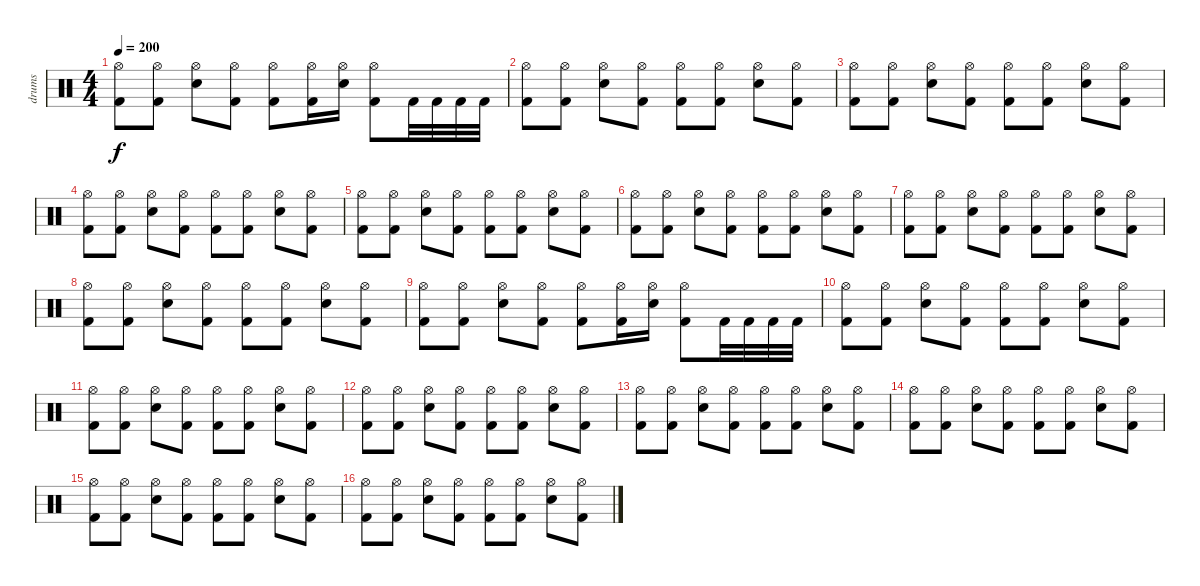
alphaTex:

\track ("drums" "drums") {instrument percussion}
\staff {score}
\articulation defaults
\ts (4 4)
\tempo 200
\clef neutral
\ks c
("Hi-Hat (open)" "Kick (hit) 2").8{dy f} ("Hi-Hat (open)" "Kick (hit) 2").8 ("Hi-Hat (open)" "Electric Snare (hit)").8 ("Hi-Hat (open)" "Kick (hit) 2").8 ("Hi-Hat (open)" "Kick (hit) 2").8 ("Hi-Hat (open)" "Kick (hit) 2").16 ("Hi-Hat (open)" "Electric Snare (hit)").16 ("Hi-Hat (open)" "Kick (hit) 2").8 "Kick (hit) 2".32 "Kick (hit) 2".32 "Kick (hit) 2".32 "Kick (hit) 2".32 |
("Hi-Hat (open)" "Kick (hit) 2").8 ("Hi-Hat (open)" "Kick (hit) 2").8 ("Hi-Hat (open)" "Electric Snare (hit)").8 ("Hi-Hat (open)" "Kick (hit) 2").8 ("Hi-Hat (open)" "Kick (hit) 2").8 ("Hi-Hat (open)" "Kick (hit) 2").8 ("Hi-Hat (open)" "Electric Snare (hit)").8 ("Hi-Hat (open)" "Kick (hit) 2").8 |
("Hi-Hat (open)" "Kick (hit) 2").8 ("Hi-Hat (open)" "Kick (hit) 2").8 ("Hi-Hat (open)" "Electric Snare (hit)").8 ("Hi-Hat (open)" "Kick (hit) 2").8 ("Hi-Hat (open)" "Kick (hit) 2").8 ("Hi-Hat (open)" "Kick (hit) 2").8 ("Hi-Hat (open)" "Electric Snare (hit)").8 ("Hi-Hat (open)" "Kick (hit) 2").8 |
("Hi-Hat (open)" "Kick (hit) 2").8 ("Hi-Hat (open)" "Kick (hit) 2").8 ("Hi-Hat (open)" "Electric Snare (hit)").8 ("Hi-Hat (open)" "Kick (hit) 2").8 ("Hi-Hat (open)" "Kick (hit) 2").8 ("Hi-Hat (open)" "Kick (hit) 2").8 ("Hi-Hat (open)" "Electric Snare (hit)").8 ("Hi-Hat (open)" "Kick (hit) 2").8 |
("Hi-Hat (open)" "Kick (hit) 2").8 ("Hi-Hat (open)" "Kick (hit) 2").8 ("Hi-Hat (open)" "Electric Snare (hit)").8 ("Hi-Hat (open)" "Kick (hit) 2").8 ("Hi-Hat (open)" "Kick (hit) 2").8 ("Hi-Hat (open)" "Kick (hit) 2").8 ("Hi-Hat (open)" "Electric Snare (hit)").8 ("Hi-Hat (open)" "Kick (hit) 2").8 |
("Hi-Hat (open)" "Kick (hit) 2").8 ("Hi-Hat (open)" "Kick (hit) 2").8 ("Hi-Hat (open)" "Electric Snare (hit)").8 ("Hi-Hat (open)" "Kick (hit) 2").8 ("Hi-Hat (open)" "Kick (hit) 2").8 ("Hi-Hat (open)" "Kick (hit) 2").8 ("Hi-Hat (open)" "Electric Snare (hit)").8 ("Hi-Hat (open)" "Kick (hit) 2").8 |
("Hi-Hat (open)" "Kick (hit) 2").8 ("Hi-Hat (open)" "Kick (hit) 2").8 ("Hi-Hat (open)" "Electric Snare (hit)").8 ("Hi-Hat (open)" "Kick (hit) 2").8 ("Hi-Hat (open)" "Kick (hit) 2").8 ("Hi-Hat (open)" "Kick (hit) 2").8 ("Hi-Hat (open)" "Electric Snare (hit)").8 ("Hi-Hat (open)" "Kick (hit) 2").8 |
("Hi-Hat (open)" "Kick (hit) 2").8 ("Hi-Hat (open)" "Kick (hit) 2").8 ("Hi-Hat (open)" "Electric Snare (hit)").8 ("Hi-Hat (open)" "Kick (hit) 2").8 ("Hi-Hat (open)" "Kick (hit) 2").8 ("Hi-Hat (open)" "Kick (hit) 2").8 ("Hi-Hat (open)" "Electric Snare (hit)").8 ("Hi-Hat (open)" "Kick (hit) 2").8 |
("Hi-Hat (open)" "Kick (hit) 2").8 ("Hi-Hat (open)" "Kick (hit) 2").8 ("Hi-Hat (open)" "Electric Snare (hit)").8 ("Hi-Hat (open)" "Kick (hit) 2").8 ("Hi-Hat (open)" "Kick (hit) 2").8 ("Hi-Hat (open)" "Kick (hit) 2").16 ("Hi-Hat (open)" "Electric Snare (hit)").16 ("Hi-Hat (open)" "Kick (hit) 2").8 "Kick (hit) 2".32 "Kick (hit) 2".32 "Kick (hit) 2".32 "Kick (hit) 2".32 |
("Hi-Hat (open)" "Kick (hit) 2").8 ("Hi-Hat (open)" "Kick (hit) 2").8 ("Hi-Hat (open)" "Electric Snare (hit)").8 ("Hi-Hat (open)" "Kick (hit) 2").8 ("Hi-Hat (open)" "Kick (hit) 2").8 ("Hi-Hat (open)" "Kick (hit) 2").8 ("Hi-Hat (open)" "Electric Snare (hit)").8 ("Hi-Hat (open)" "Kick (hit) 2").8 |
("Hi-Hat (open)" "Kick (hit) 2").8 ("Hi-Hat (open)" "Kick (hit) 2").8 ("Hi-Hat (open)" "Electric Snare (hit)").8 ("Hi-Hat (open)" "Kick (hit) 2").8 ("Hi-Hat (open)" "Kick (hit) 2").8 ("Hi-Hat (open)" "Kick (hit) 2").8 ("Hi-Hat (open)" "Electric Snare (hit)").8 ("Hi-Hat (open)" "Kick (hit) 2").8 |
("Hi-Hat (open)" "Kick (hit) 2").8 ("Hi-Hat (open)" "Kick (hit) 2").8 ("Hi-Hat (open)" "Electric Snare (hit)").8 ("Hi-Hat (open)" "Kick (hit) 2").8 ("Hi-Hat (open)" "Kick (hit) 2").8 ("Hi-Hat (open)" "Kick (hit) 2").8 ("Hi-Hat (open)" "Electric Snare (hit)").8 ("Hi-Hat (open)" "Kick (hit) 2").8 |
("Hi-Hat (open)" "Kick (hit) 2").8 ("Hi-Hat (open)" "Kick (hit) 2").8 ("Hi-Hat (open)" "Electric Snare (hit)").8 ("Hi-Hat (open)" "Kick (hit) 2").8 ("Hi-Hat (open)" "Kick (hit) 2").8 ("Hi-Hat (open)" "Kick (hit) 2").8 ("Hi-Hat (open)" "Electric Snare (hit)").8 ("Hi-Hat (open)" "Kick (hit) 2").8 |
("Hi-Hat (open)" "Kick (hit) 2").8 ("Hi-Hat (open)" "Kick (hit) 2").8 ("Hi-Hat (open)" "Electric Snare (hit)").8 ("Hi-Hat (open)" "Kick (hit) 2").8 ("Hi-Hat (open)" "Kick (hit) 2").8 ("Hi-Hat (open)" "Kick (hit) 2").8 ("Hi-Hat (open)" "Electric Snare (hit)").8 ("Hi-Hat (open)" "Kick (hit) 2").8 |
("Hi-Hat (open)" "Kick (hit) 2").8 ("Hi-Hat (open)" "Kick (hit) 2").8 ("Hi-Hat (open)" "Electric Snare (hit)").8 ("Hi-Hat (open)" "Kick (hit) 2").8 ("Hi-Hat (open)" "Kick (hit) 2").8 ("Hi-Hat (open)" "Kick (hit) 2").8 ("Hi-Hat (open)" "Electric Snare (hit)").8 ("Hi-Hat (open)" "Kick (hit) 2").8 |
("Hi-Hat (open)" "Kick (hit) 2").8 ("Hi-Hat (open)" "Kick (hit) 2").8 ("Hi-Hat (open)" "Electric Snare (hit)").8 ("Hi-Hat (open)" "Kick (hit) 2").8 ("Hi-Hat (open)" "Kick (hit) 2").8 ("Hi-Hat (open)" "Kick (hit) 2").8 ("Hi-Hat (open)" "Electric Snare (hit)").8 ("Hi-Hat (open)" "Kick (hit) 2").8
